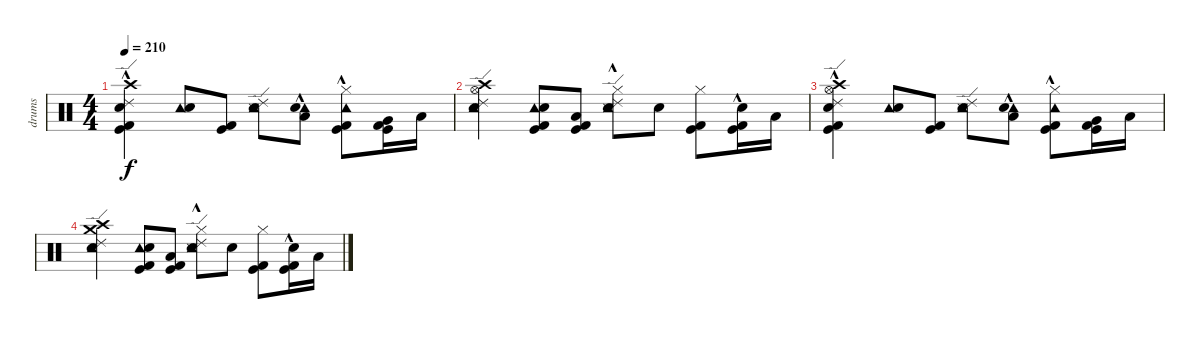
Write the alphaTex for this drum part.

\track ("drums" "drums") {instrument percussion}
\staff {score}
\articulation defaults
\ts (4 4)
\tempo 210
\clef neutral
\ks c
("Crash high (hit)" "Kick (hit)" "Kick (hit) 2" "Snare (hit) 2"{hac} "Ride (edge) 2").4{dy f} ("Tambourine (hit)" "Electric Snare (hit)").8 ("Kick (hit)" "Kick (hit) 2").8 ("Tambourine (hit)" "Ride (edge) 2" "Snare (side stick) 3" "Snare (hit) 2").8 ("Low Tom (hit)" "Tambourine (hit)" "Snare (hit) 2"{hac}).8 ("Tambourine (hit)" "Kick (hit)" "Kick (hit) 2" "Hi-Hat (closed)"{hac}).8 ("Kick (hit) 2" "Very Low Tom (hit)" "Kick (hit)").16 "Low Tom (hit)".16 |
("Crash high (hit)" "Hi-Hat (open)" "Tambourine (hit)" "Snare (hit) 2" "Ride (edge) 2").4 ("Tambourine (hit)" "Kick (hit)" "Kick (hit) 2" "Electric Snare (hit)").8 ("Low Tom (hit)" "Kick (hit) 2" "Kick (hit)").8 ("Tambourine (hit)" "Ride (edge) 2" "Snare (side stick) 3" "Snare (hit) 2" "Hi-Hat (closed)"{hac}).8 "Snare (hit) 2".8 ("Hi-Hat (closed)" "Kick (hit)" "Kick (hit) 2").8 ("Snare (hit) 2"{hac} "Kick (hit) 2" "Kick (hit)").16 "Low Tom (hit)".16 |
("Crash high (hit)" "Hi-Hat (open)" "Kick (hit)" "Kick (hit) 2" "Snare (hit) 2"{hac} "Ride (edge) 2").4 ("Tambourine (hit)" "Electric Snare (hit)").8 ("Kick (hit)" "Kick (hit) 2").8 ("Tambourine (hit)" "Ride (edge) 2" "Snare (side stick) 3" "Snare (hit) 2").8 ("Low Tom (hit)" "Tambourine (hit)" "Snare (hit) 2"{hac}).8 ("Tambourine (hit)" "Kick (hit)" "Kick (hit) 2" "Hi-Hat (closed)"{hac}).8 ("Kick (hit) 2" "Very Low Tom (hit)" "Kick (hit)").16 "Low Tom (hit)".16 |
("Crash high (hit)" "Tambourine (hit)" "Crash medium (hit)" "Snare (hit) 2" "Ride (edge) 2").4 ("Tambourine (hit)" "Kick (hit)" "Kick (hit) 2" "Electric Snare (hit)").8 ("Low Tom (hit)" "Kick (hit) 2" "Kick (hit)").8 ("Tambourine (hit)" "Ride (edge) 2" "Snare (side stick) 3" "Snare (hit) 2" "Hi-Hat (closed)"{hac}).8 "Snare (hit) 2".8 ("Hi-Hat (closed)" "Kick (hit)" "Kick (hit) 2").8 ("Snare (hit) 2"{hac} "Kick (hit) 2" "Kick (hit)").16 "Low Tom (hit)".16
